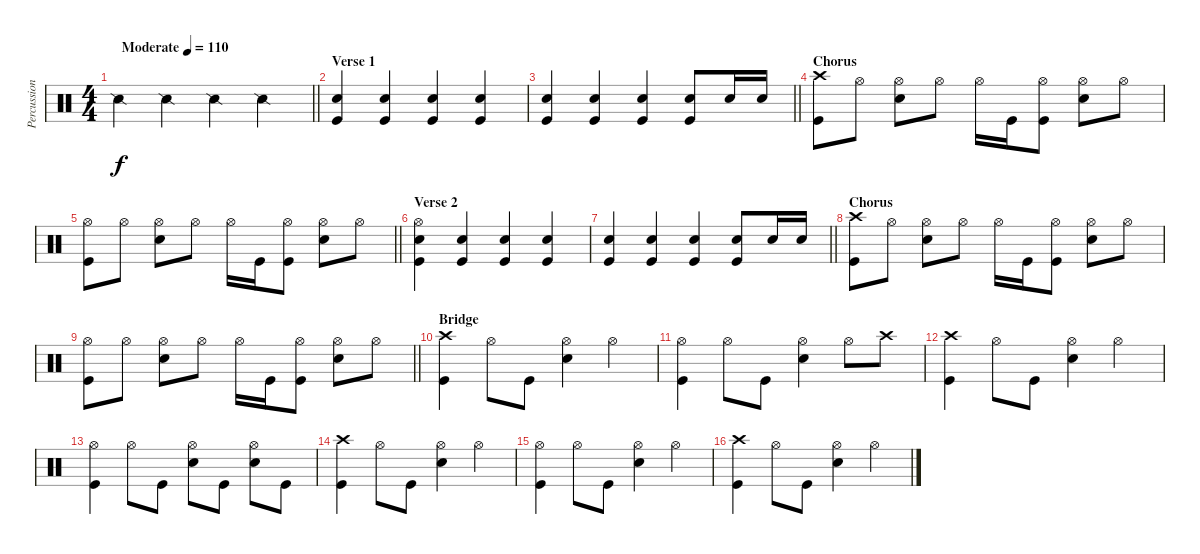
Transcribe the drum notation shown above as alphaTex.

\track ("Percussion" "Percussion") {instrument percussion}
\staff {score}
\articulation defaults
\ts (4 4)
\tempo (110 "Moderate")
\clef neutral
\barLineRight lightlight
\ks c "Snare (side stick) 2".4{dy f} "Snare (side stick) 2".4 "Snare (side stick) 2".4 "Snare (side stick) 2".4
|
\section ("" "Verse 1")
("Snare (hit) 2" "Kick (hit)").4 ("Snare (hit) 2" "Kick (hit)").4 ("Snare (hit) 2" "Kick (hit)").4 ("Snare (hit) 2" "Kick (hit)").4 |
\barLineRight lightlight
("Snare (hit) 2" "Kick (hit)").4 ("Snare (hit) 2" "Kick (hit)").4 ("Snare (hit) 2" "Kick (hit)").4 ("Snare (hit) 2" "Kick (hit)").8 "Snare (hit) 2".16 "Snare (hit) 2".16 |
\section ("" "Chorus")
("Crash high (hit)" "Kick (hit)").8 "Hi-Hat (open)".8 ("Hi-Hat (open)" "Snare (hit) 2").8 "Hi-Hat (open)".8 "Hi-Hat (open)".16 "Kick (hit)".16 ("Hi-Hat (open)" "Kick (hit)").8 ("Hi-Hat (open)" "Snare (hit) 2").8 "Hi-Hat (open)".8 |
\barLineRight lightlight
("Hi-Hat (open)" "Kick (hit)").8 "Hi-Hat (open)".8 ("Hi-Hat (open)" "Snare (hit) 2").8 "Hi-Hat (open)".8 "Hi-Hat (open)".16 "Kick (hit)".16 ("Hi-Hat (open)" "Kick (hit)").8 ("Hi-Hat (open)" "Snare (hit) 2").8 "Hi-Hat (open)".8 |
\section ("" "Verse 2")
("Hi-Hat (open)" "Snare (hit) 2" "Kick (hit)").4 ("Snare (hit) 2" "Kick (hit)").4 ("Snare (hit) 2" "Kick (hit)").4 ("Snare (hit) 2" "Kick (hit)").4 |
\barLineRight lightlight
("Snare (hit) 2" "Kick (hit)").4 ("Snare (hit) 2" "Kick (hit)").4 ("Snare (hit) 2" "Kick (hit)").4 ("Snare (hit) 2" "Kick (hit)").8 "Snare (hit) 2".16 "Snare (hit) 2".16 |
\section ("" "Chorus")
("Crash high (hit)" "Kick (hit)").8 "Hi-Hat (open)".8 ("Hi-Hat (open)" "Snare (hit) 2").8 "Hi-Hat (open)".8 "Hi-Hat (open)".16 "Kick (hit)".16 ("Hi-Hat (open)" "Kick (hit)").8 ("Hi-Hat (open)" "Snare (hit) 2").8 "Hi-Hat (open)".8 |
\barLineRight lightlight
("Hi-Hat (open)" "Kick (hit)").8 "Hi-Hat (open)".8 ("Hi-Hat (open)" "Snare (hit) 2").8 "Hi-Hat (open)".8 "Hi-Hat (open)".16 "Kick (hit)".16 ("Hi-Hat (open)" "Kick (hit)").8 ("Hi-Hat (open)" "Snare (hit) 2").8 "Hi-Hat (open)".8 |
\section ("" "Bridge")
("Crash high (hit)" "Kick (hit)").4 "Hi-Hat (open)".8 "Kick (hit)".8 ("Hi-Hat (open)" "Snare (hit) 2").4 "Hi-Hat (open)".4 |
("Hi-Hat (open)" "Kick (hit)").4 "Hi-Hat (open)".8 "Kick (hit)".8 ("Hi-Hat (open)" "Snare (hit) 2").4 "Hi-Hat (open)".8 "Crash high (hit)".8 |
("Crash high (hit)" "Kick (hit)").4 "Hi-Hat (open)".8 "Kick (hit)".8 ("Hi-Hat (open)" "Snare (hit) 2").4 "Hi-Hat (open)".4 |
("Hi-Hat (open)" "Kick (hit)").4 "Hi-Hat (open)".8 "Kick (hit)".8 ("Hi-Hat (open)" "Snare (hit) 2").8 "Kick (hit)".8 ("Hi-Hat (open)" "Snare (hit) 2").8 "Kick (hit)".8 |
("Crash high (hit)" "Kick (hit)").4 "Hi-Hat (open)".8 "Kick (hit)".8 ("Hi-Hat (open)" "Snare (hit) 2").4 "Hi-Hat (open)".4 |
("Hi-Hat (open)" "Kick (hit)").4 "Hi-Hat (open)".8 "Kick (hit)".8 ("Hi-Hat (open)" "Snare (hit) 2").4 "Hi-Hat (open)".4 |
("Crash high (hit)" "Kick (hit)").4 "Hi-Hat (open)".8 "Kick (hit)".8 ("Hi-Hat (open)" "Snare (hit) 2").4 "Hi-Hat (open)".4
